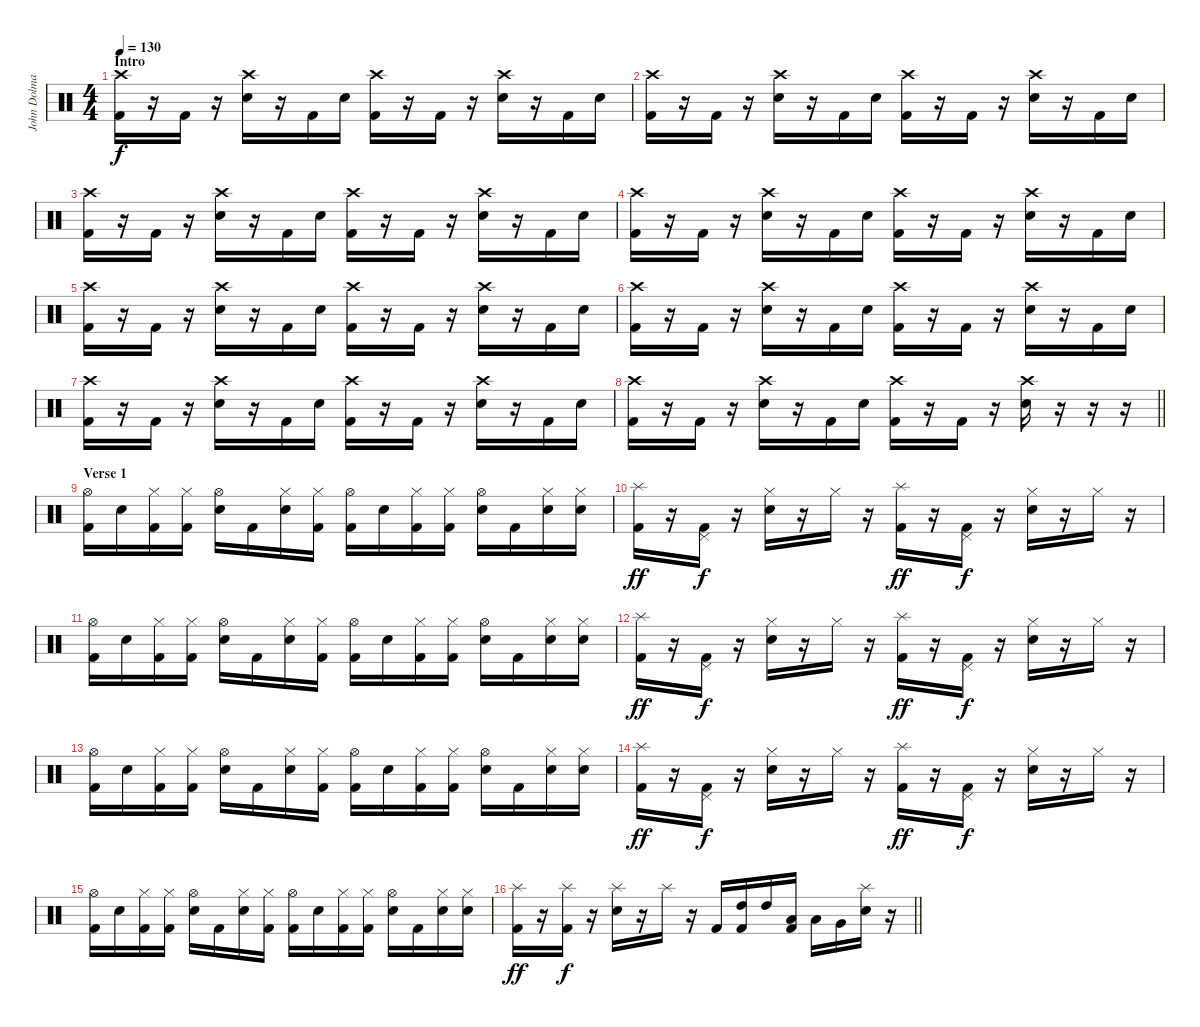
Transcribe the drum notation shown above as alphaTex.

\track ("John Dolmayan" "John Dolma") {instrument percussion}
\staff {score}
\articulation defaults
\ts (4 4)
\section ("" "Intro")
\tempo 130
\clef neutral
\ks c
("Crash high (hit)" "Kick (hit) 2").16{dy f} r.16 "Kick (hit) 2".16 r.16 ("Crash high (hit)" "Electric Snare (hit)").16 r.16 "Kick (hit) 2".16 "Electric Snare (hit)".16 ("Crash high (hit)" "Kick (hit) 2").16 r.16 "Kick (hit) 2".16 r.16 ("Crash high (hit)" "Electric Snare (hit)").16 r.16 "Kick (hit) 2".16 "Electric Snare (hit)".16 |
("Crash high (hit)" "Kick (hit) 2").16 r.16 "Kick (hit) 2".16 r.16 ("Crash high (hit)" "Electric Snare (hit)").16 r.16 "Kick (hit) 2".16 "Electric Snare (hit)".16 ("Crash high (hit)" "Kick (hit) 2").16 r.16 "Kick (hit) 2".16 r.16 ("Crash high (hit)" "Electric Snare (hit)").16 r.16 "Kick (hit) 2".16 "Electric Snare (hit)".16 |
("Crash high (hit)" "Kick (hit) 2").16 r.16 "Kick (hit) 2".16 r.16 ("Crash high (hit)" "Electric Snare (hit)").16 r.16 "Kick (hit) 2".16 "Electric Snare (hit)".16 ("Crash high (hit)" "Kick (hit) 2").16 r.16 "Kick (hit) 2".16 r.16 ("Crash high (hit)" "Electric Snare (hit)").16 r.16 "Kick (hit) 2".16 "Electric Snare (hit)".16 |
("Crash high (hit)" "Kick (hit) 2").16 r.16 "Kick (hit) 2".16 r.16 ("Crash high (hit)" "Electric Snare (hit)").16 r.16 "Kick (hit) 2".16 "Electric Snare (hit)".16 ("Crash high (hit)" "Kick (hit) 2").16 r.16 "Kick (hit) 2".16 r.16 ("Crash high (hit)" "Electric Snare (hit)").16 r.16 "Kick (hit) 2".16 "Electric Snare (hit)".16 |
("Crash high (hit)" "Kick (hit) 2").16 r.16 "Kick (hit) 2".16 r.16 ("Crash high (hit)" "Electric Snare (hit)").16 r.16 "Kick (hit) 2".16 "Electric Snare (hit)".16 ("Crash high (hit)" "Kick (hit) 2").16 r.16 "Kick (hit) 2".16 r.16 ("Crash high (hit)" "Electric Snare (hit)").16 r.16 "Kick (hit) 2".16 "Electric Snare (hit)".16 |
("Crash high (hit)" "Kick (hit) 2").16 r.16 "Kick (hit) 2".16 r.16 ("Crash high (hit)" "Electric Snare (hit)").16 r.16 "Kick (hit) 2".16 "Electric Snare (hit)".16 ("Crash high (hit)" "Kick (hit) 2").16 r.16 "Kick (hit) 2".16 r.16 ("Crash high (hit)" "Electric Snare (hit)").16 r.16 "Kick (hit) 2".16 "Electric Snare (hit)".16 |
("Crash high (hit)" "Kick (hit) 2").16 r.16 "Kick (hit) 2".16 r.16 ("Crash high (hit)" "Electric Snare (hit)").16 r.16 "Kick (hit) 2".16 "Electric Snare (hit)".16 ("Crash high (hit)" "Kick (hit) 2").16 r.16 "Kick (hit) 2".16 r.16 ("Crash high (hit)" "Electric Snare (hit)").16 r.16 "Kick (hit) 2".16 "Electric Snare (hit)".16 |
\barLineRight lightlight
("Crash high (hit)" "Kick (hit) 2").16 r.16 "Kick (hit) 2".16 r.16 ("Crash high (hit)" "Electric Snare (hit)").16 r.16 "Kick (hit) 2".16 "Electric Snare (hit)".16 ("Crash high (hit)" "Kick (hit) 2").16 r.16 "Kick (hit) 2".16 r.16 ("Crash high (hit)" "Electric Snare (hit)").16 r.16 r.16 r.16 |
\section ("" "Verse 1")
("Hi-Hat (open)" "Kick (hit) 2").16 "Electric Snare (hit)".16 ("Hi-Hat (closed)" "Kick (hit) 2").16 ("Hi-Hat (closed)" "Kick (hit) 2").16 ("Hi-Hat (open)" "Electric Snare (hit)").16 "Kick (hit) 2".16 ("Hi-Hat (closed)" "Electric Snare (hit)").16 ("Hi-Hat (closed)" "Kick (hit) 2").16 ("Hi-Hat (open)" "Kick (hit) 2").16 "Electric Snare (hit)".16 ("Hi-Hat (closed)" "Kick (hit) 2").16 ("Hi-Hat (closed)" "Kick (hit) 2").16 ("Hi-Hat (open)" "Electric Snare (hit)").16 "Kick (hit) 2".16 ("Hi-Hat (closed)" "Electric Snare (hit)").16 ("Hi-Hat (closed)" "Electric Snare (hit)").16 |
("Splash (hit)" "Kick (hit) 2").16{dy ff} r.16 ("Pedal Hi-Hat (hit)" "Kick (hit) 2").16{dy f} r.16 ("Hi-Hat (closed)" "Electric Snare (hit)").16 r.16 "Hi-Hat (closed)".16 r.16 ("Splash (hit)" "Kick (hit) 2").16{dy ff} r.16 ("Pedal Hi-Hat (hit)" "Kick (hit) 2").16{dy f} r.16 ("Hi-Hat (closed)" "Electric Snare (hit)").16 r.16 "Hi-Hat (closed)".16 r.16 |
("Hi-Hat (open)" "Kick (hit) 2").16 "Electric Snare (hit)".16 ("Hi-Hat (closed)" "Kick (hit) 2").16 ("Hi-Hat (closed)" "Kick (hit) 2").16 ("Hi-Hat (open)" "Electric Snare (hit)").16 "Kick (hit) 2".16 ("Hi-Hat (closed)" "Electric Snare (hit)").16 ("Hi-Hat (closed)" "Kick (hit) 2").16 ("Hi-Hat (open)" "Kick (hit) 2").16 "Electric Snare (hit)".16 ("Hi-Hat (closed)" "Kick (hit) 2").16 ("Hi-Hat (closed)" "Kick (hit) 2").16 ("Hi-Hat (open)" "Electric Snare (hit)").16 "Kick (hit) 2".16 ("Hi-Hat (closed)" "Electric Snare (hit)").16 ("Hi-Hat (closed)" "Electric Snare (hit)").16 |
("Splash (hit)" "Kick (hit) 2").16{dy ff} r.16 ("Pedal Hi-Hat (hit)" "Kick (hit) 2").16{dy f} r.16 ("Hi-Hat (closed)" "Electric Snare (hit)").16 r.16 "Hi-Hat (closed)".16 r.16 ("Splash (hit)" "Kick (hit) 2").16{dy ff} r.16 ("Pedal Hi-Hat (hit)" "Kick (hit) 2").16{dy f} r.16 ("Hi-Hat (closed)" "Electric Snare (hit)").16 r.16 "Hi-Hat (closed)".16 r.16 |
("Hi-Hat (open)" "Kick (hit) 2").16 "Electric Snare (hit)".16 ("Hi-Hat (closed)" "Kick (hit) 2").16 ("Hi-Hat (closed)" "Kick (hit) 2").16 ("Hi-Hat (open)" "Electric Snare (hit)").16 "Kick (hit) 2".16 ("Hi-Hat (closed)" "Electric Snare (hit)").16 ("Hi-Hat (closed)" "Kick (hit) 2").16 ("Hi-Hat (open)" "Kick (hit) 2").16 "Electric Snare (hit)".16 ("Hi-Hat (closed)" "Kick (hit) 2").16 ("Hi-Hat (closed)" "Kick (hit) 2").16 ("Hi-Hat (open)" "Electric Snare (hit)").16 "Kick (hit) 2".16 ("Hi-Hat (closed)" "Electric Snare (hit)").16 ("Hi-Hat (closed)" "Electric Snare (hit)").16 |
("Splash (hit)" "Kick (hit) 2").16{dy ff} r.16 ("Pedal Hi-Hat (hit)" "Kick (hit) 2").16{dy f} r.16 ("Hi-Hat (closed)" "Electric Snare (hit)").16 r.16 "Hi-Hat (closed)".16 r.16 ("Splash (hit)" "Kick (hit) 2").16{dy ff} r.16 ("Pedal Hi-Hat (hit)" "Kick (hit) 2").16{dy f} r.16 ("Hi-Hat (closed)" "Electric Snare (hit)").16 r.16 "Hi-Hat (closed)".16 r.16 |
("Hi-Hat (open)" "Kick (hit) 2").16 "Electric Snare (hit)".16 ("Hi-Hat (closed)" "Kick (hit) 2").16 ("Hi-Hat (closed)" "Kick (hit) 2").16 ("Hi-Hat (open)" "Electric Snare (hit)").16 "Kick (hit) 2".16 ("Hi-Hat (closed)" "Electric Snare (hit)").16 ("Hi-Hat (closed)" "Kick (hit) 2").16 ("Hi-Hat (open)" "Kick (hit) 2").16 "Electric Snare (hit)".16 ("Hi-Hat (closed)" "Kick (hit) 2").16 ("Hi-Hat (closed)" "Kick (hit) 2").16 ("Hi-Hat (open)" "Electric Snare (hit)").16 "Kick (hit) 2".16 ("Hi-Hat (closed)" "Electric Snare (hit)").16 ("Hi-Hat (closed)" "Electric Snare (hit)").16 |
\barLineRight lightlight
("Splash (hit)" "Kick (hit) 2").16{dy ff} r.16 ("Splash (hit)" "Kick (hit) 2").16{dy f} r.16 ("Splash (hit)" "Electric Snare (hit)").16 r.16 "Splash (hit)".16 r.16 "Kick (hit) 2".16 ("High Tom (hit)" "Kick (hit) 2").16 "High Tom (hit)".16 ("Low Tom (hit)" "Kick (hit) 2").16 "Low Tom (hit)".16 "Very Low Tom (hit)".16 ("Splash (hit)" "Electric Snare (hit)").16 r.16
